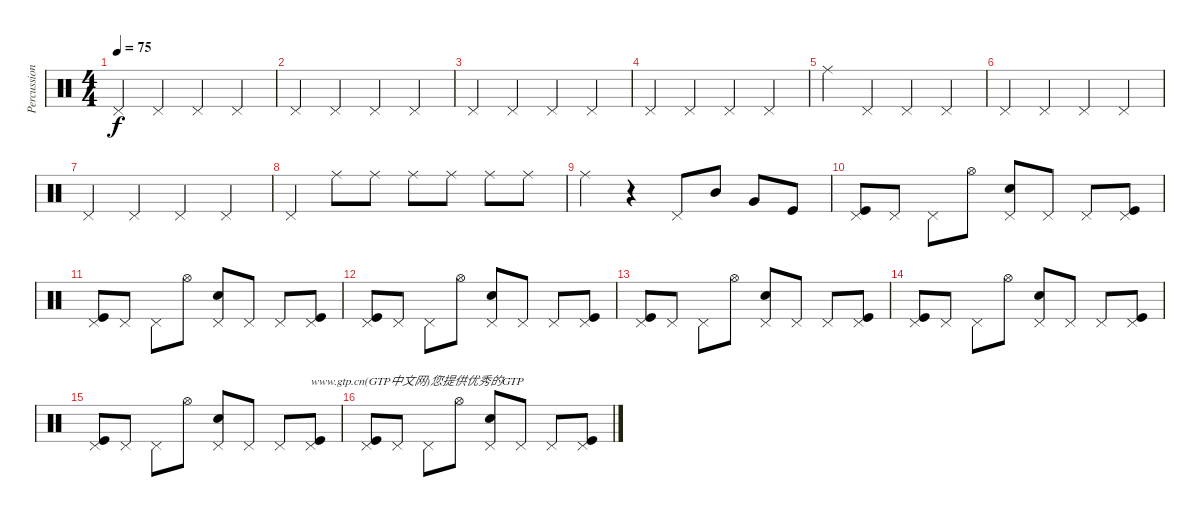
\track ("Percussion" "Percussion") {instrument percussion}
\staff {score}
\articulation defaults
\ts (4 4)
\tempo 75
\clef neutral
\ks c "Pedal Hi-Hat (hit)".4{dy f} "Pedal Hi-Hat (hit)".4 "Pedal Hi-Hat (hit)".4 "Pedal Hi-Hat (hit)".4
|
"Pedal Hi-Hat (hit)".4 "Pedal Hi-Hat (hit)".4 "Pedal Hi-Hat (hit)".4 "Pedal Hi-Hat (hit)".4 |
"Pedal Hi-Hat (hit)".4 "Pedal Hi-Hat (hit)".4 "Pedal Hi-Hat (hit)".4 "Pedal Hi-Hat (hit)".4 |
"Pedal Hi-Hat (hit)".4 "Pedal Hi-Hat (hit)".4 "Pedal Hi-Hat (hit)".4 "Pedal Hi-Hat (hit)".4 |
"Ride (middle)".4 "Pedal Hi-Hat (hit)".4 "Pedal Hi-Hat (hit)".4 "Pedal Hi-Hat (hit)".4 |
"Pedal Hi-Hat (hit)".4 "Pedal Hi-Hat (hit)".4 "Pedal Hi-Hat (hit)".4 "Pedal Hi-Hat (hit)".4 |
"Pedal Hi-Hat (hit)".4 "Pedal Hi-Hat (hit)".4 "Pedal Hi-Hat (hit)".4 "Pedal Hi-Hat (hit)".4 |
"Pedal Hi-Hat (hit)".4 "Ride (middle)".8 "Ride (middle)".8 "Ride (middle)".8 "Ride (middle)".8 "Ride (middle)".8 "Ride (middle)".8 |
"Ride (middle)".4 r.4 "Pedal Hi-Hat (hit)".8 "Mid Tom (hit)".8 "Very Low Tom (hit)".8 "Kick (hit)".8 |
("Pedal Hi-Hat (hit)" "Kick (hit)").8 "Pedal Hi-Hat (hit)".8 "Pedal Hi-Hat (hit)".8 "Hi-Hat (open)".8 ("Snare (hit) 2" "Pedal Hi-Hat (hit)").8 "Pedal Hi-Hat (hit)".8 "Pedal Hi-Hat (hit)".8 ("Kick (hit)" "Pedal Hi-Hat (hit)").8 |
("Pedal Hi-Hat (hit)" "Kick (hit)").8 "Pedal Hi-Hat (hit)".8 "Pedal Hi-Hat (hit)".8 "Hi-Hat (open)".8 ("Snare (hit) 2" "Pedal Hi-Hat (hit)").8 "Pedal Hi-Hat (hit)".8 "Pedal Hi-Hat (hit)".8 ("Kick (hit)" "Pedal Hi-Hat (hit)").8 |
("Pedal Hi-Hat (hit)" "Kick (hit)").8 "Pedal Hi-Hat (hit)".8 "Pedal Hi-Hat (hit)".8 "Hi-Hat (open)".8 ("Snare (hit) 2" "Pedal Hi-Hat (hit)").8 "Pedal Hi-Hat (hit)".8 "Pedal Hi-Hat (hit)".8 ("Kick (hit)" "Pedal Hi-Hat (hit)").8 |
("Pedal Hi-Hat (hit)" "Kick (hit)").8 "Pedal Hi-Hat (hit)".8 "Pedal Hi-Hat (hit)".8 "Hi-Hat (open)".8 ("Snare (hit) 2" "Pedal Hi-Hat (hit)").8 "Pedal Hi-Hat (hit)".8 "Pedal Hi-Hat (hit)".8 ("Kick (hit)" "Pedal Hi-Hat (hit)").8 |
("Pedal Hi-Hat (hit)" "Kick (hit)").8 "Pedal Hi-Hat (hit)".8 "Pedal Hi-Hat (hit)".8 "Hi-Hat (open)".8 ("Snare (hit) 2" "Pedal Hi-Hat (hit)").8 "Pedal Hi-Hat (hit)".8 "Pedal Hi-Hat (hit)".8 ("Kick (hit)" "Pedal Hi-Hat (hit)").8 |
("Pedal Hi-Hat (hit)" "Kick (hit)").8 "Pedal Hi-Hat (hit)".8 "Pedal Hi-Hat (hit)".8 "Hi-Hat (open)".8 ("Snare (hit) 2" "Pedal Hi-Hat (hit)").8 "Pedal Hi-Hat (hit)".8 "Pedal Hi-Hat (hit)".8 ("Kick (hit)" "Pedal Hi-Hat (hit)").8{txt "www.gtp.cn(GTP中文网)您提供优秀的GTP"} |
("Pedal Hi-Hat (hit)" "Kick (hit)").8 "Pedal Hi-Hat (hit)".8 "Pedal Hi-Hat (hit)".8 "Hi-Hat (open)".8 ("Snare (hit) 2" "Pedal Hi-Hat (hit)").8 "Pedal Hi-Hat (hit)".8 "Pedal Hi-Hat (hit)".8 ("Kick (hit)" "Pedal Hi-Hat (hit)").8
